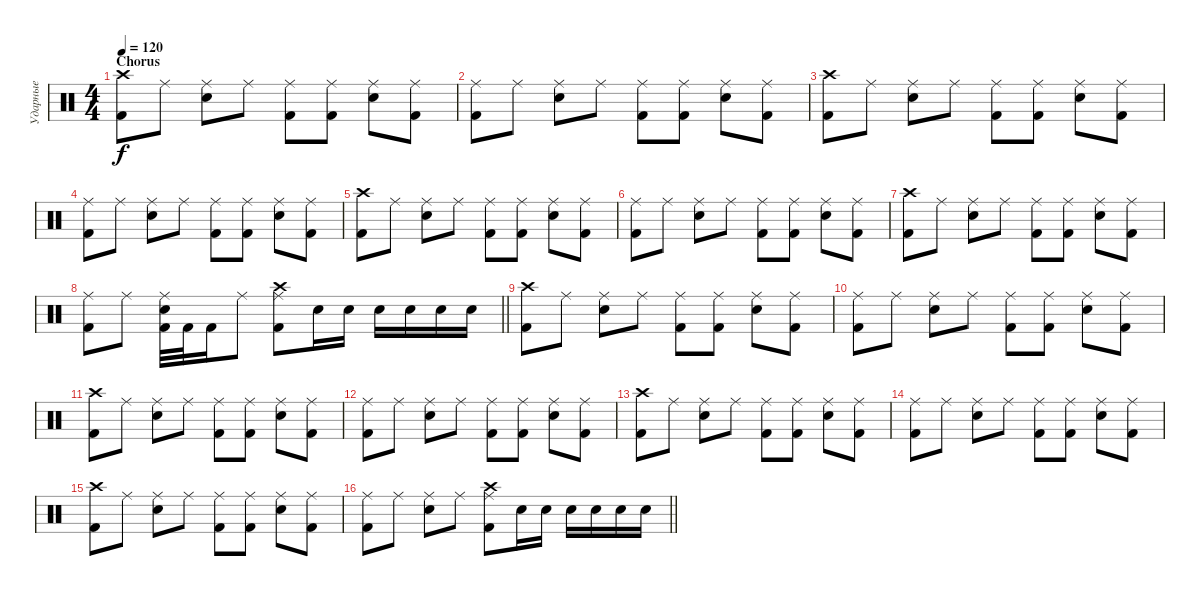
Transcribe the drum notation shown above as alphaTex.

\track ("Ударные" "Ударные") {instrument percussion}
\staff {score}
\articulation defaults
\ts (4 4)
\section ("" "Chorus")
\tempo 120
\clef neutral
\ks c
("Crash high (hit)" "Kick (hit) 2").8{dy f} "Ride (middle)".8 ("Ride (middle)" "Electric Snare (hit)").8 "Ride (middle)".8 ("Ride (middle)" "Kick (hit) 2").8 ("Ride (middle)" "Kick (hit) 2").8 ("Ride (middle)" "Electric Snare (hit)").8 ("Ride (middle)" "Kick (hit) 2").8 |
("Ride (middle)" "Kick (hit) 2").8 "Ride (middle)".8 ("Ride (middle)" "Electric Snare (hit)").8 "Ride (middle)".8 ("Ride (middle)" "Kick (hit) 2").8 ("Ride (middle)" "Kick (hit) 2").8 ("Ride (middle)" "Electric Snare (hit)").8 ("Ride (middle)" "Kick (hit) 2").8 |
("Crash high (hit)" "Kick (hit) 2").8 "Ride (middle)".8 ("Ride (middle)" "Electric Snare (hit)").8 "Ride (middle)".8 ("Ride (middle)" "Kick (hit) 2").8 ("Ride (middle)" "Kick (hit) 2").8 ("Ride (middle)" "Electric Snare (hit)").8 ("Ride (middle)" "Kick (hit) 2").8 |
("Ride (middle)" "Kick (hit) 2").8 "Ride (middle)".8 ("Ride (middle)" "Electric Snare (hit)").8 "Ride (middle)".8 ("Ride (middle)" "Kick (hit) 2").8 ("Ride (middle)" "Kick (hit) 2").8 ("Ride (middle)" "Electric Snare (hit)").8 ("Ride (middle)" "Kick (hit) 2").8 |
("Crash high (hit)" "Kick (hit) 2").8 "Ride (middle)".8 ("Ride (middle)" "Electric Snare (hit)").8 "Ride (middle)".8 ("Ride (middle)" "Kick (hit) 2").8 ("Ride (middle)" "Kick (hit) 2").8 ("Ride (middle)" "Electric Snare (hit)").8 ("Ride (middle)" "Kick (hit) 2").8 |
("Ride (middle)" "Kick (hit) 2").8 "Ride (middle)".8 ("Ride (middle)" "Electric Snare (hit)").8 "Ride (middle)".8 ("Ride (middle)" "Kick (hit) 2").8 ("Ride (middle)" "Kick (hit) 2").8 ("Ride (middle)" "Electric Snare (hit)").8 ("Ride (middle)" "Kick (hit) 2").8 |
("Crash high (hit)" "Kick (hit) 2").8 "Ride (middle)".8 ("Ride (middle)" "Electric Snare (hit)").8 "Ride (middle)".8 ("Ride (middle)" "Kick (hit) 2").8 ("Ride (middle)" "Kick (hit) 2").8 ("Ride (middle)" "Electric Snare (hit)").8 ("Ride (middle)" "Kick (hit) 2").8 |
\barLineRight lightlight
("Ride (middle)" "Kick (hit) 2").8 "Ride (middle)".8 ("Ride (middle)" "Electric Snare (hit)" "Kick (hit) 2").32 "Kick (hit) 2".32 "Kick (hit) 2".16 "Ride (middle)".8 ("Crash high (hit)" "Ride (middle)" "Kick (hit) 2").8 "Electric Snare (hit)".16 "Electric Snare (hit)".16 "Electric Snare (hit)".16 "Electric Snare (hit)".16 "Electric Snare (hit)".16 "Electric Snare (hit)".16 |
("Crash high (hit)" "Kick (hit) 2").8 "Ride (middle)".8 ("Ride (middle)" "Electric Snare (hit)").8 "Ride (middle)".8 ("Ride (middle)" "Kick (hit) 2").8 ("Ride (middle)" "Kick (hit) 2").8 ("Ride (middle)" "Electric Snare (hit)").8 ("Ride (middle)" "Kick (hit) 2").8 |
("Ride (middle)" "Kick (hit) 2").8 "Ride (middle)".8 ("Ride (middle)" "Electric Snare (hit)").8 "Ride (middle)".8 ("Ride (middle)" "Kick (hit) 2").8 ("Ride (middle)" "Kick (hit) 2").8 ("Ride (middle)" "Electric Snare (hit)").8 ("Ride (middle)" "Kick (hit) 2").8 |
("Crash high (hit)" "Kick (hit) 2").8 "Ride (middle)".8 ("Ride (middle)" "Electric Snare (hit)").8 "Ride (middle)".8 ("Ride (middle)" "Kick (hit) 2").8 ("Ride (middle)" "Kick (hit) 2").8 ("Ride (middle)" "Electric Snare (hit)").8 ("Ride (middle)" "Kick (hit) 2").8 |
("Ride (middle)" "Kick (hit) 2").8 "Ride (middle)".8 ("Ride (middle)" "Electric Snare (hit)").8 "Ride (middle)".8 ("Ride (middle)" "Kick (hit) 2").8 ("Ride (middle)" "Kick (hit) 2").8 ("Ride (middle)" "Electric Snare (hit)").8 ("Ride (middle)" "Kick (hit) 2").8 |
("Crash high (hit)" "Kick (hit) 2").8 "Ride (middle)".8 ("Ride (middle)" "Electric Snare (hit)").8 "Ride (middle)".8 ("Ride (middle)" "Kick (hit) 2").8 ("Ride (middle)" "Kick (hit) 2").8 ("Ride (middle)" "Electric Snare (hit)").8 ("Ride (middle)" "Kick (hit) 2").8 |
("Ride (middle)" "Kick (hit) 2").8 "Ride (middle)".8 ("Ride (middle)" "Electric Snare (hit)").8 "Ride (middle)".8 ("Ride (middle)" "Kick (hit) 2").8 ("Ride (middle)" "Kick (hit) 2").8 ("Ride (middle)" "Electric Snare (hit)").8 ("Ride (middle)" "Kick (hit) 2").8 |
("Crash high (hit)" "Kick (hit) 2").8 "Ride (middle)".8 ("Ride (middle)" "Electric Snare (hit)").8 "Ride (middle)".8 ("Ride (middle)" "Kick (hit) 2").8 ("Ride (middle)" "Kick (hit) 2").8 ("Ride (middle)" "Electric Snare (hit)").8 ("Ride (middle)" "Kick (hit) 2").8 |
\barLineRight lightlight
("Ride (middle)" "Kick (hit) 2").8 "Ride (middle)".8 ("Ride (middle)" "Electric Snare (hit)").8 "Ride (middle)".8 ("Crash high (hit)" "Ride (middle)" "Kick (hit) 2").8 "Electric Snare (hit)".16 "Electric Snare (hit)".16 "Electric Snare (hit)".16 "Electric Snare (hit)".16 "Electric Snare (hit)".16 "Electric Snare (hit)".16
